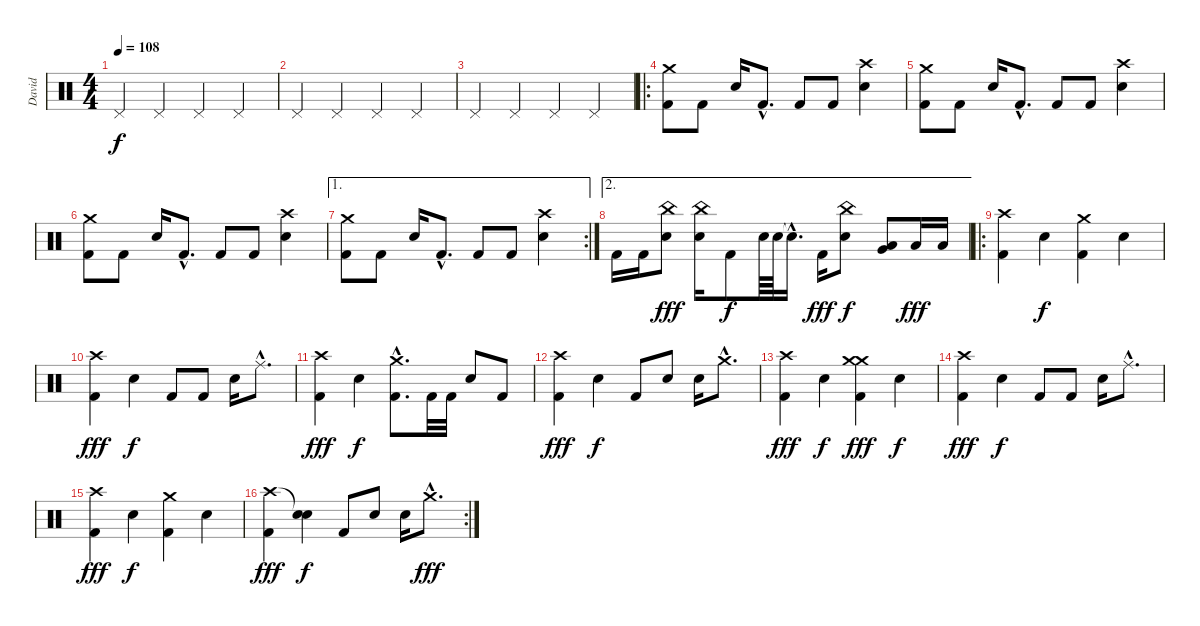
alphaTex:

\track ("David" "David") {instrument percussion}
\staff {score}
\articulation defaults
\ts (4 4)
\tempo 108
\clef neutral
\ks c "Pedal Hi-Hat (hit)".4{dy f} "Pedal Hi-Hat (hit)".4 "Pedal Hi-Hat (hit)".4 "Pedal Hi-Hat (hit)".4
|
"Pedal Hi-Hat (hit)".4 "Pedal Hi-Hat (hit)".4 "Pedal Hi-Hat (hit)".4 "Pedal Hi-Hat (hit)".4 |
"Pedal Hi-Hat (hit)".4 "Pedal Hi-Hat (hit)".4 "Pedal Hi-Hat (hit)".4 "Pedal Hi-Hat (hit)".4 |
\ro
("Crash medium (hit)" "Kick (hit) 2").8 "Kick (hit) 2".8 "Snare (hit) 2".16 "Kick (hit) 2"{hac}.8{d} "Kick (hit) 2".8 "Kick (hit) 2".8 ("Crash high (hit)" "Snare (hit) 2").4 |
("Crash medium (hit)" "Kick (hit) 2").8 "Kick (hit) 2".8 "Snare (hit) 2".16 "Kick (hit) 2"{hac}.8{d} "Kick (hit) 2".8 "Kick (hit) 2".8 ("Crash high (hit)" "Snare (hit) 2").4 |
("Crash medium (hit)" "Kick (hit) 2").8 "Kick (hit) 2".8 "Snare (hit) 2".16 "Kick (hit) 2"{hac}.8{d} "Kick (hit) 2".8 "Kick (hit) 2".8 ("Crash high (hit)" "Snare (hit) 2").4 |
\ae 1
\rc 2
("Crash medium (hit)" "Kick (hit) 2").8 "Kick (hit) 2".8 "Snare (hit) 2".16 "Kick (hit) 2"{hac}.8{d} "Kick (hit) 2".8 "Kick (hit) 2".8 ("Crash high (hit)" "Snare (hit) 2").4 |
\ae 2 "Kick (hit) 2".16 "Kick (hit) 2".16
("China (hit)" "Snare (hit) 2").8{dy fff} ("China (hit)" "Snare (hit) 2").16 "Kick (hit) 2".8{dy f} "Snare (hit) 2".64 "Snare (hit) 2".64 "Snare (hit)"{hac t}.16{d} "Kick (hit) 2".16{dy fff} ("China (hit)" "Snare (hit) 2").8{dy f} ("Low Tom (hit)" "Very Low Tom (hit)").8 "Low Floor Tom (hit)".16{dy fff} "Low Floor Tom (hit)".16 |
\ro
("Crash high (hit)" "Kick (hit) 2").4 "Snare (hit) 2".4{dy f} ("Crash medium (hit)" "Kick (hit) 2").4 "Snare (hit) 2".4 |
("Crash high (hit)" "Kick (hit) 2").4{dy fff} "Snare (hit) 2".4{dy f} "Kick (hit) 2".8 "Kick (hit) 2".8 "Snare (hit) 2".16 "Ride (middle)"{hac}.8{d} |
("Crash high (hit)" "Kick (hit) 2").4{dy fff} "Snare (hit) 2".4{dy f} ("Crash medium (hit)"{hac} "Kick (hit) 2"{hac}).8{d} "Kick (hit) 2".32 "Kick (hit) 2".32 "Snare (hit) 2".8 "Kick (hit) 2".8 |
("Crash high (hit)" "Kick (hit) 2").4{dy fff} "Snare (hit) 2".4{dy f} "Kick (hit) 2".8 "Snare (hit) 2".8 "Snare (hit) 2".16 "Crash medium (hit)"{hac}.8{d} |
("Crash high (hit)" "Kick (hit) 2").4{dy fff} "Snare (hit) 2".4{dy f} ("Crash medium (hit)" "Crash medium (hit)" "Kick (hit) 2").4{dy fff} "Snare (hit) 2".4{dy f} |
("Crash high (hit)" "Kick (hit) 2").4{dy fff} "Snare (hit) 2".4{dy f} "Kick (hit) 2".8 "Kick (hit) 2".8 "Snare (hit) 2".16 "Ride (middle)"{hac}.8{d} |
("Crash high (hit)" "Kick (hit) 2").4{dy fff} "Snare (hit) 2".4{dy f} ("Crash medium (hit)" "Kick (hit) 2").4 "Snare (hit) 2".4 |
\rc 2
("Crash high (hit)" "Kick (hit) 2").4{dy fff} ("Snare (hit)"{t} "Snare (hit) 2").4{dy f} "Kick (hit) 2".8 "Snare (hit) 2".8 "Snare (hit) 2".16 "Crash medium (hit)"{hac}.8{d dy fff}
